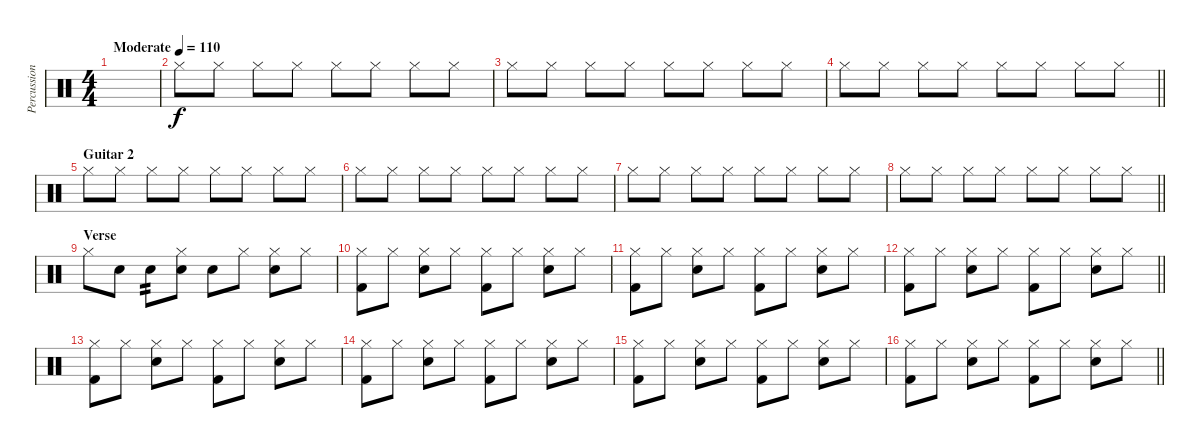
\track ("Percussion" "Percussion") {instrument percussion}
\staff {score}
\articulation defaults
\ts (4 4)
\tempo (110 "Moderate")
\clef neutral
\ks c
|
"Hi-Hat (closed)".8 "Hi-Hat (closed)".8 "Hi-Hat (closed)".8 "Hi-Hat (closed)".8 "Hi-Hat (closed)".8 "Hi-Hat (closed)".8 "Hi-Hat (closed)".8 "Hi-Hat (closed)".8 |
"Hi-Hat (closed)".8 "Hi-Hat (closed)".8 "Hi-Hat (closed)".8 "Hi-Hat (closed)".8 "Hi-Hat (closed)".8 "Hi-Hat (closed)".8 "Hi-Hat (closed)".8 "Hi-Hat (closed)".8 |
\barLineRight lightlight "Hi-Hat (closed)".8 "Hi-Hat (closed)".8 "Hi-Hat (closed)".8 "Hi-Hat (closed)".8 "Hi-Hat (closed)".8 "Hi-Hat (closed)".8 "Hi-Hat (closed)".8 "Hi-Hat (closed)".8
|
\section ("" "Guitar 2")
"Hi-Hat (closed)".8 "Hi-Hat (closed)".8 "Hi-Hat (closed)".8 "Hi-Hat (closed)".8 "Hi-Hat (closed)".8 "Hi-Hat (closed)".8 "Hi-Hat (closed)".8 "Hi-Hat (closed)".8 |
"Hi-Hat (closed)".8 "Hi-Hat (closed)".8 "Hi-Hat (closed)".8 "Hi-Hat (closed)".8 "Hi-Hat (closed)".8 "Hi-Hat (closed)".8 "Hi-Hat (closed)".8 "Hi-Hat (closed)".8 |
"Hi-Hat (closed)".8 "Hi-Hat (closed)".8 "Hi-Hat (closed)".8 "Hi-Hat (closed)".8 "Hi-Hat (closed)".8 "Hi-Hat (closed)".8 "Hi-Hat (closed)".8 "Hi-Hat (closed)".8 |
\barLineRight lightlight "Hi-Hat (closed)".8 "Hi-Hat (closed)".8 "Hi-Hat (closed)".8 "Hi-Hat (closed)".8 "Hi-Hat (closed)".8 "Hi-Hat (closed)".8 "Hi-Hat (closed)".8 "Hi-Hat (closed)".8
|
\section ("" "Verse")
"Hi-Hat (closed)".8 "Electric Snare (hit)".8 "Electric Snare (hit)".8{tp 2} ("Hi-Hat (closed)" "Electric Snare (hit)").8 "Electric Snare (hit)".8 "Hi-Hat (closed)".8 ("Hi-Hat (closed)" "Electric Snare (hit)").8 "Hi-Hat (closed)".8 |
("Hi-Hat (closed)" "Kick (hit) 2").8 "Hi-Hat (closed)".8 ("Hi-Hat (closed)" "Electric Snare (hit)").8 "Hi-Hat (closed)".8 ("Hi-Hat (closed)" "Kick (hit) 2").8 "Hi-Hat (closed)".8 ("Hi-Hat (closed)" "Electric Snare (hit)").8 "Hi-Hat (closed)".8 |
("Hi-Hat (closed)" "Kick (hit) 2").8 "Hi-Hat (closed)".8 ("Hi-Hat (closed)" "Electric Snare (hit)").8 "Hi-Hat (closed)".8 ("Hi-Hat (closed)" "Kick (hit) 2").8 "Hi-Hat (closed)".8 ("Hi-Hat (closed)" "Electric Snare (hit)").8 "Hi-Hat (closed)".8 |
\barLineRight lightlight
("Hi-Hat (closed)" "Kick (hit) 2").8 "Hi-Hat (closed)".8 ("Hi-Hat (closed)" "Electric Snare (hit)").8 "Hi-Hat (closed)".8 ("Hi-Hat (closed)" "Kick (hit) 2").8 "Hi-Hat (closed)".8 ("Hi-Hat (closed)" "Electric Snare (hit)").8 "Hi-Hat (closed)".8 |
("Hi-Hat (closed)" "Kick (hit) 2").8 "Hi-Hat (closed)".8 ("Hi-Hat (closed)" "Electric Snare (hit)").8 "Hi-Hat (closed)".8 ("Hi-Hat (closed)" "Kick (hit) 2").8 "Hi-Hat (closed)".8 ("Hi-Hat (closed)" "Electric Snare (hit)").8 "Hi-Hat (closed)".8 |
("Hi-Hat (closed)" "Kick (hit) 2").8 "Hi-Hat (closed)".8 ("Hi-Hat (closed)" "Electric Snare (hit)").8 "Hi-Hat (closed)".8 ("Hi-Hat (closed)" "Kick (hit) 2").8 "Hi-Hat (closed)".8 ("Hi-Hat (closed)" "Electric Snare (hit)").8 "Hi-Hat (closed)".8 |
("Hi-Hat (closed)" "Kick (hit) 2").8 "Hi-Hat (closed)".8 ("Hi-Hat (closed)" "Electric Snare (hit)").8 "Hi-Hat (closed)".8 ("Hi-Hat (closed)" "Kick (hit) 2").8 "Hi-Hat (closed)".8 ("Hi-Hat (closed)" "Electric Snare (hit)").8 "Hi-Hat (closed)".8 |
\barLineRight lightlight
("Hi-Hat (closed)" "Kick (hit) 2").8 "Hi-Hat (closed)".8 ("Hi-Hat (closed)" "Electric Snare (hit)").8 "Hi-Hat (closed)".8 ("Hi-Hat (closed)" "Kick (hit) 2").8 "Hi-Hat (closed)".8 ("Hi-Hat (closed)" "Electric Snare (hit)").8 "Hi-Hat (closed)".8
